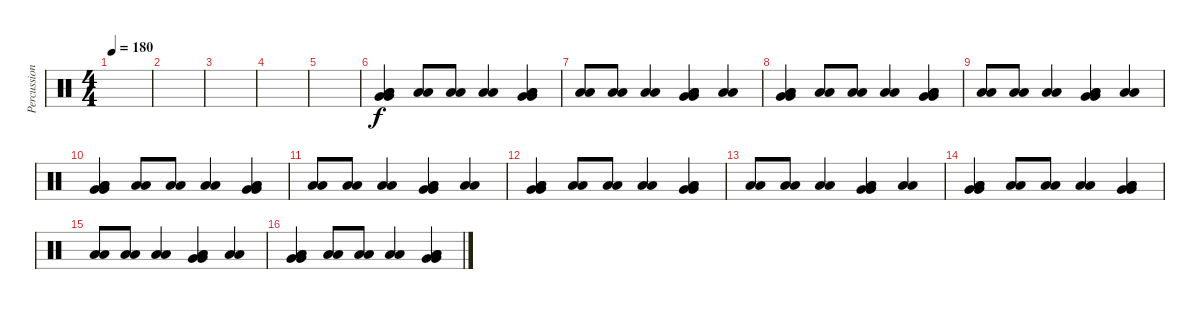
\track ("Percussion" "Percussion") {instrument percussion}
\staff {score}
\articulation defaults
\ts (4 4)
\tempo 180
\clef neutral
\ks c
|
|
|
|
|
("Low Floor Tom (hit)" "Low Floor Tom (hit)" "Very Low Tom (hit)" "Very Low Tom (hit)").4 ("Low Floor Tom (hit)" "Low Floor Tom (hit)").8 ("Low Floor Tom (hit)" "Low Floor Tom (hit)").8 ("Low Floor Tom (hit)" "Low Floor Tom (hit)").4 ("Low Floor Tom (hit)" "Low Floor Tom (hit)" "Very Low Tom (hit)" "Very Low Tom (hit)").4 |
("Low Floor Tom (hit)" "Low Floor Tom (hit)").8 ("Low Floor Tom (hit)" "Low Floor Tom (hit)").8 ("Low Floor Tom (hit)" "Low Floor Tom (hit)").4 ("Low Floor Tom (hit)" "Low Floor Tom (hit)" "Very Low Tom (hit)" "Very Low Tom (hit)").4 ("Low Floor Tom (hit)" "Low Floor Tom (hit)").4 |
("Low Floor Tom (hit)" "Low Floor Tom (hit)" "Very Low Tom (hit)" "Very Low Tom (hit)").4 ("Low Floor Tom (hit)" "Low Floor Tom (hit)").8 ("Low Floor Tom (hit)" "Low Floor Tom (hit)").8 ("Low Floor Tom (hit)" "Low Floor Tom (hit)").4 ("Low Floor Tom (hit)" "Low Floor Tom (hit)" "Very Low Tom (hit)" "Very Low Tom (hit)").4 |
("Low Floor Tom (hit)" "Low Floor Tom (hit)").8 ("Low Floor Tom (hit)" "Low Floor Tom (hit)").8 ("Low Floor Tom (hit)" "Low Floor Tom (hit)").4 ("Low Floor Tom (hit)" "Low Floor Tom (hit)" "Very Low Tom (hit)" "Very Low Tom (hit)").4 ("Low Floor Tom (hit)" "Low Floor Tom (hit)").4 |
("Low Floor Tom (hit)" "Low Floor Tom (hit)" "Very Low Tom (hit)" "Very Low Tom (hit)").4 ("Low Floor Tom (hit)" "Low Floor Tom (hit)").8 ("Low Floor Tom (hit)" "Low Floor Tom (hit)").8 ("Low Floor Tom (hit)" "Low Floor Tom (hit)").4 ("Low Floor Tom (hit)" "Low Floor Tom (hit)" "Very Low Tom (hit)" "Very Low Tom (hit)").4 |
("Low Floor Tom (hit)" "Low Floor Tom (hit)").8 ("Low Floor Tom (hit)" "Low Floor Tom (hit)").8 ("Low Floor Tom (hit)" "Low Floor Tom (hit)").4 ("Low Floor Tom (hit)" "Low Floor Tom (hit)" "Very Low Tom (hit)" "Very Low Tom (hit)").4 ("Low Floor Tom (hit)" "Low Floor Tom (hit)").4 |
("Low Floor Tom (hit)" "Low Floor Tom (hit)" "Very Low Tom (hit)" "Very Low Tom (hit)").4 ("Low Floor Tom (hit)" "Low Floor Tom (hit)").8 ("Low Floor Tom (hit)" "Low Floor Tom (hit)").8 ("Low Floor Tom (hit)" "Low Floor Tom (hit)").4 ("Low Floor Tom (hit)" "Low Floor Tom (hit)" "Very Low Tom (hit)" "Very Low Tom (hit)").4 |
("Low Floor Tom (hit)" "Low Floor Tom (hit)").8 ("Low Floor Tom (hit)" "Low Floor Tom (hit)").8 ("Low Floor Tom (hit)" "Low Floor Tom (hit)").4 ("Low Floor Tom (hit)" "Low Floor Tom (hit)" "Very Low Tom (hit)" "Very Low Tom (hit)").4 ("Low Floor Tom (hit)" "Low Floor Tom (hit)").4 |
("Low Floor Tom (hit)" "Low Floor Tom (hit)" "Very Low Tom (hit)" "Very Low Tom (hit)").4 ("Low Floor Tom (hit)" "Low Floor Tom (hit)").8 ("Low Floor Tom (hit)" "Low Floor Tom (hit)").8 ("Low Floor Tom (hit)" "Low Floor Tom (hit)").4 ("Low Floor Tom (hit)" "Low Floor Tom (hit)" "Very Low Tom (hit)" "Very Low Tom (hit)").4 |
("Low Floor Tom (hit)" "Low Floor Tom (hit)").8 ("Low Floor Tom (hit)" "Low Floor Tom (hit)").8 ("Low Floor Tom (hit)" "Low Floor Tom (hit)").4 ("Low Floor Tom (hit)" "Low Floor Tom (hit)" "Very Low Tom (hit)" "Very Low Tom (hit)").4 ("Low Floor Tom (hit)" "Low Floor Tom (hit)").4 |
("Low Floor Tom (hit)" "Low Floor Tom (hit)" "Very Low Tom (hit)" "Very Low Tom (hit)").4 ("Low Floor Tom (hit)" "Low Floor Tom (hit)").8 ("Low Floor Tom (hit)" "Low Floor Tom (hit)").8 ("Low Floor Tom (hit)" "Low Floor Tom (hit)").4 ("Low Floor Tom (hit)" "Low Floor Tom (hit)" "Very Low Tom (hit)" "Very Low Tom (hit)").4
